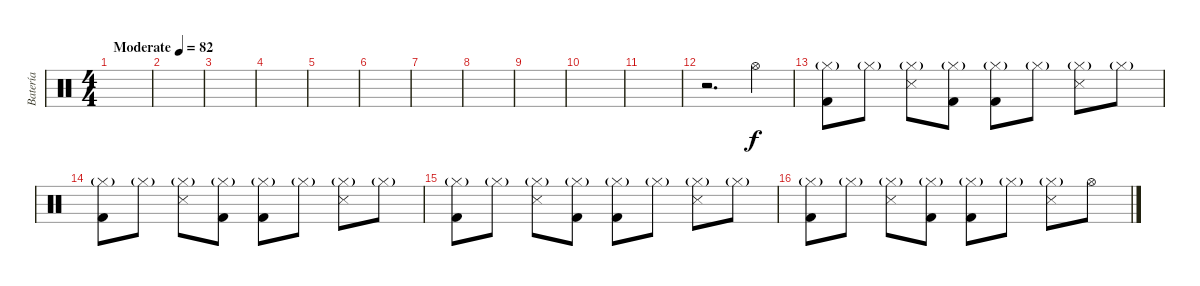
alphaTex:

\track ("Batería" "Batería") {instrument percussion}
\staff {score}
\articulation defaults
\ts (4 4)
\tempo (82 "Moderate")
\clef neutral
\ks c
|
|
|
|
|
|
|
|
|
|
|
r.2{d} "Hi-Hat (open)".4 |
("Hi-Hat (closed)"{g} "Kick (hit) 2").8 "Hi-Hat (closed)"{g}.8 ("Hi-Hat (closed)"{g} "Snare (side stick) 3").8 ("Hi-Hat (closed)"{g} "Kick (hit) 2").8 ("Hi-Hat (closed)"{g} "Kick (hit) 2").8 "Hi-Hat (closed)"{g}.8 ("Hi-Hat (closed)"{g} "Snare (side stick) 3").8 "Hi-Hat (closed)"{g}.8 |
("Hi-Hat (closed)"{g} "Kick (hit) 2").8 "Hi-Hat (closed)"{g}.8 ("Hi-Hat (closed)"{g} "Snare (side stick) 3").8 ("Hi-Hat (closed)"{g} "Kick (hit) 2").8 ("Hi-Hat (closed)"{g} "Kick (hit) 2").8 "Hi-Hat (closed)"{g}.8 ("Hi-Hat (closed)"{g} "Snare (side stick) 3").8 "Hi-Hat (closed)"{g}.8 |
("Hi-Hat (closed)"{g} "Kick (hit) 2").8 "Hi-Hat (closed)"{g}.8 ("Hi-Hat (closed)"{g} "Snare (side stick) 3").8 ("Hi-Hat (closed)"{g} "Kick (hit) 2").8 ("Hi-Hat (closed)"{g} "Kick (hit) 2").8 "Hi-Hat (closed)"{g}.8 ("Hi-Hat (closed)"{g} "Snare (side stick) 3").8 "Hi-Hat (closed)"{g}.8 |
("Hi-Hat (closed)"{g} "Kick (hit) 2").8 "Hi-Hat (closed)"{g}.8 ("Hi-Hat (closed)"{g} "Snare (side stick) 3").8 ("Hi-Hat (closed)"{g} "Kick (hit) 2").8 ("Hi-Hat (closed)"{g} "Kick (hit) 2").8 "Hi-Hat (closed)"{g}.8 ("Hi-Hat (closed)"{g} "Snare (side stick) 3").8 "Hi-Hat (open)".8
